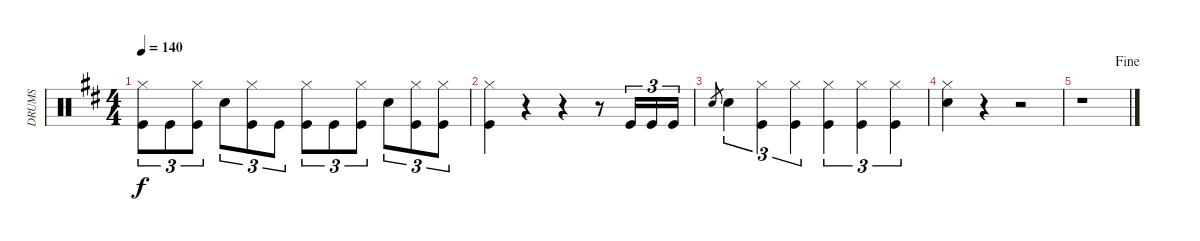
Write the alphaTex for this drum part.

\track ("DRUMS" "DRUMS") {instrument percussion}
\staff {score}
\articulation defaults
\ts (4 4)
\tempo 140
\clef neutral
\ks d
("Hi-Hat (closed)" "Kick (hit)").8{tu (3 2) dy f} "Kick (hit)".8{tu (3 2)} ("Hi-Hat (closed)" "Kick (hit)").8{tu (3 2)} "Snare (hit) 2".8{tu (3 2)} ("Hi-Hat (closed)" "Kick (hit)").8{tu (3 2)} "Kick (hit)".8{tu (3 2)} ("Hi-Hat (closed)" "Kick (hit)").8{tu (3 2)} "Kick (hit)".8{tu (3 2)} ("Hi-Hat (closed)" "Kick (hit)").8{tu (3 2)} "Snare (hit) 2".8{tu (3 2)} ("Hi-Hat (closed)" "Kick (hit)").8{tu (3 2)} ("Hi-Hat (closed)" "Kick (hit)").8{tu (3 2)} |
("Hi-Hat (closed)" "Kick (hit)").4 r.4 r.4 r.8 "Kick (hit)".16{tu (3 2)} "Kick (hit)".16{tu (3 2)} "Kick (hit)".16{tu (3 2)} |
"Snare (hit) 2".8{gr} "Snare (hit) 2".4{tu (3 2)} ("Hi-Hat (closed)" "Kick (hit)").4{tu (3 2)} ("Hi-Hat (closed)" "Kick (hit)").4{tu (3 2)} ("Hi-Hat (closed)" "Kick (hit)").4{tu (3 2)} ("Hi-Hat (closed)" "Kick (hit)").4{tu (3 2)} ("Hi-Hat (closed)" "Kick (hit)").4{tu (3 2)} |
("Hi-Hat (closed)" "Snare (hit) 2").4 r.4 r.2 |
\jump fine
r.1
